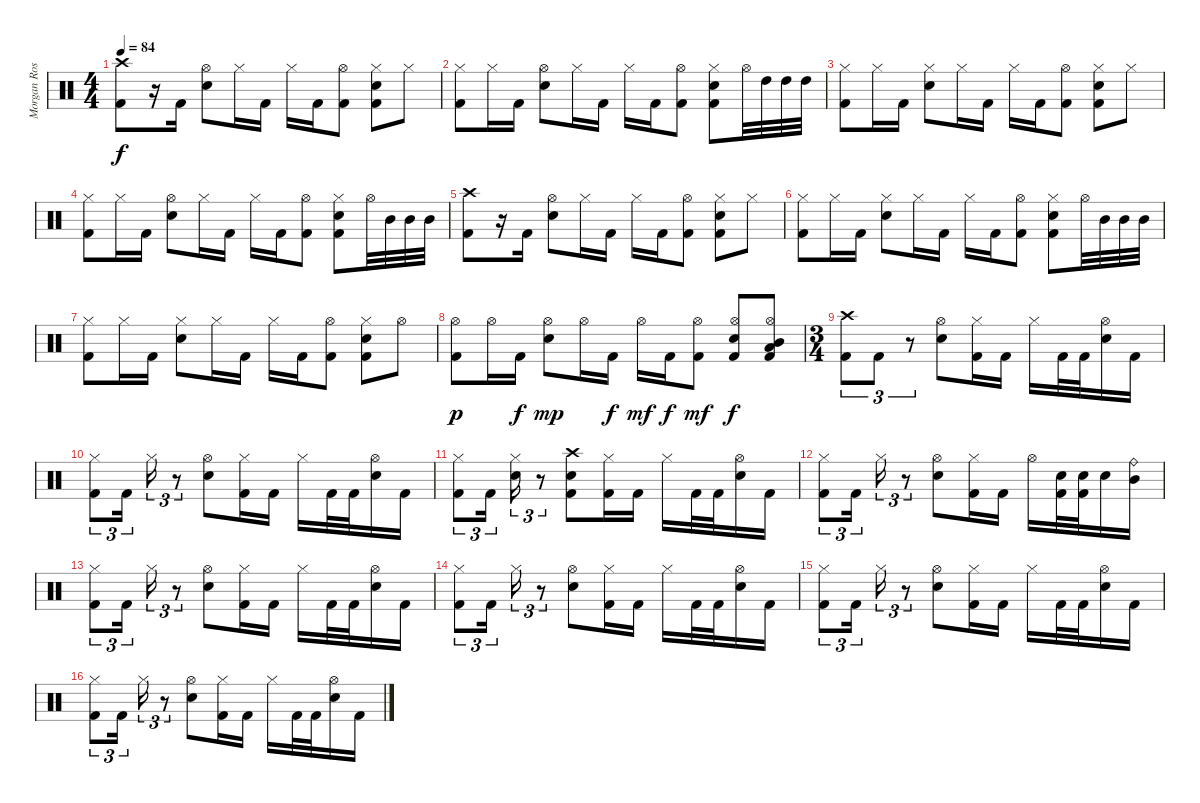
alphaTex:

\track ("Morgan Rose - Drums" "Morgan Ros") {instrument percussion}
\staff {score}
\articulation defaults
\ts (4 4)
\tempo 84
\clef neutral
\ks c
("Crash high (hit)" "Kick (hit) 2").8{dy f} r.16 "Kick (hit) 2".16 ("Hi-Hat (open)" "Electric Snare (hit)").8 "Hi-Hat (closed)".16 "Kick (hit) 2".16 "Hi-Hat (closed)".16 "Kick (hit) 2".16 ("Hi-Hat (open)" "Kick (hit) 2").8 ("Hi-Hat (closed)" "Electric Snare (hit)" "Kick (hit) 2").8 "Hi-Hat (closed)".8 |
("Hi-Hat (closed)" "Kick (hit) 2").8 "Hi-Hat (closed)".16 "Kick (hit) 2".16 ("Hi-Hat (open)" "Electric Snare (hit)").8 "Hi-Hat (closed)".16 "Kick (hit) 2".16 "Hi-Hat (closed)".16 "Kick (hit) 2".16 ("Hi-Hat (open)" "Kick (hit) 2").8 ("Hi-Hat (closed)" "Electric Snare (hit)" "Kick (hit) 2").8 "Hi-Hat (open)".32 "High Tom (hit)".32 "High Tom (hit)".32 "High Tom (hit)".32 |
("Hi-Hat (closed)" "Kick (hit) 2").8 "Hi-Hat (closed)".16 "Kick (hit) 2".16 ("Hi-Hat (closed)" "Electric Snare (hit)").8 "Hi-Hat (closed)".16 "Kick (hit) 2".16 "Hi-Hat (closed)".16 "Kick (hit) 2".16 ("Hi-Hat (open)" "Kick (hit) 2").8 ("Hi-Hat (closed)" "Electric Snare (hit)" "Kick (hit) 2").8 "Hi-Hat (closed)".8 |
("Hi-Hat (closed)" "Kick (hit) 2").8 "Hi-Hat (closed)".16 "Kick (hit) 2".16 ("Hi-Hat (open)" "Electric Snare (hit)").8 "Hi-Hat (closed)".16 "Kick (hit) 2".16 "Hi-Hat (closed)".16 "Kick (hit) 2".16 ("Hi-Hat (open)" "Kick (hit) 2").8 ("Hi-Hat (closed)" "Electric Snare (hit)" "Kick (hit) 2").8 "Hi-Hat (open)".32 "Mid Tom (hit)".32 "Mid Tom (hit)".32 "Mid Tom (hit)".32 |
("Crash high (hit)" "Kick (hit) 2").8 r.16 "Kick (hit) 2".16 ("Hi-Hat (open)" "Electric Snare (hit)").8 "Hi-Hat (closed)".16 "Kick (hit) 2".16 "Hi-Hat (closed)".16 "Kick (hit) 2".16 ("Hi-Hat (open)" "Kick (hit) 2").8 ("Hi-Hat (closed)" "Electric Snare (hit)" "Kick (hit) 2").8 "Hi-Hat (closed)".8 |
("Hi-Hat (closed)" "Kick (hit) 2").8 "Hi-Hat (closed)".16 "Kick (hit) 2".16 ("Hi-Hat (closed)" "Electric Snare (hit)").8 "Hi-Hat (closed)".16 "Kick (hit) 2".16 "Hi-Hat (closed)".16 "Kick (hit) 2".16 ("Hi-Hat (open)" "Kick (hit) 2").8 ("Hi-Hat (closed)" "Electric Snare (hit)" "Kick (hit) 2").8 "Hi-Hat (open)".32 "Mid Tom (hit)".32 "Mid Tom (hit)".32 "Mid Tom (hit)".32 |
("Hi-Hat (closed)" "Kick (hit) 2").8 "Hi-Hat (closed)".16 "Kick (hit) 2".16 ("Hi-Hat (closed)" "Electric Snare (hit)").8 "Hi-Hat (closed)".16 "Kick (hit) 2".16 "Hi-Hat (closed)".16 "Kick (hit) 2".16 ("Hi-Hat (open)" "Kick (hit) 2").8 ("Hi-Hat (closed)" "Electric Snare (hit)" "Kick (hit) 2").8 "Hi-Hat (open)".8 |
("Hi-Hat (open)" "Kick (hit) 2").8{dy p} "Hi-Hat (open)".16 "Kick (hit) 2".16{dy f} ("Hi-Hat (open)" "Electric Snare (hit)").8{dy mp} "Hi-Hat (open)".16 "Kick (hit) 2".16{dy f} "Hi-Hat (open)".16{dy mf} "Kick (hit) 2".16{dy f} ("Hi-Hat (open)" "Kick (hit) 2").8{dy mf} ("Hi-Hat (open)" "Electric Snare (hit)" "Kick (hit) 2").8{dy f} ("Hi-Hat (open)" "Mid Tom (hit)" "Low Tom (hit)" "Kick (hit) 2").8 |
\ts (3 4)
("Crash high (hit)" "Kick (hit) 2").8{tu (3 2)} "Kick (hit) 2".8{tu (3 2)} r.8{tu (3 2)} ("Hi-Hat (open)" "Electric Snare (hit)").8 ("Hi-Hat (closed)" "Kick (hit) 2").16 "Kick (hit) 2".16 "Hi-Hat (closed)".16 "Kick (hit) 2".32 "Kick (hit) 2".32 ("Hi-Hat (open)" "Electric Snare (hit)").16 "Kick (hit) 2".16 |
("Hi-Hat (closed)" "Kick (hit) 2").8{tu (3 2)} "Kick (hit) 2".16{tu (3 2)} "Hi-Hat (closed)".16{tu (3 2)} r.8{tu (3 2)} ("Hi-Hat (open)" "Electric Snare (hit)").8 ("Hi-Hat (closed)" "Kick (hit) 2").16 "Kick (hit) 2".16 "Hi-Hat (closed)".16 "Kick (hit) 2".32 "Kick (hit) 2".32 ("Hi-Hat (open)" "Electric Snare (hit)").16 "Kick (hit) 2".16 |
("Hi-Hat (closed)" "Kick (hit) 2").8{tu (3 2)} "Kick (hit) 2".16{tu (3 2)} ("Hi-Hat (closed)"{x} "Snare (hit)"{x}).16{tu (3 2)} r.8{tu (3 2)} ("Crash high (hit)" "Electric Snare (hit)" "Kick (hit) 2").8 ("Hi-Hat (closed)" "Kick (hit) 2").16 "Kick (hit) 2".16 "Hi-Hat (closed)".16 "Kick (hit) 2".32 "Kick (hit) 2".32 ("Hi-Hat (open)" "Electric Snare (hit)").16 "Kick (hit) 2".16 |
("Hi-Hat (closed)" "Kick (hit) 2").8{tu (3 2)} "Kick (hit) 2".16{tu (3 2)} "Hi-Hat (closed)".16{tu (3 2)} r.8{tu (3 2)} ("Hi-Hat (open)" "Electric Snare (hit)").8 ("Hi-Hat (closed)" "Kick (hit) 2").16 "Kick (hit) 2".16 "Hi-Hat (open)".16 ("Electric Snare (hit)" "Kick (hit) 2").32 ("Electric Snare (hit)" "Kick (hit) 2").32 "Electric Snare (hit)".16 ("Ride (bell)" "Mid Tom (hit)").16 |
("Hi-Hat (closed)" "Kick (hit) 2").8{tu (3 2)} "Kick (hit) 2".16{tu (3 2)} "Hi-Hat (closed)".16{tu (3 2)} r.8{tu (3 2)} ("Hi-Hat (open)" "Electric Snare (hit)").8 ("Hi-Hat (closed)" "Kick (hit) 2").16 "Kick (hit) 2".16 "Hi-Hat (closed)".16 "Kick (hit) 2".32 "Kick (hit) 2".32 ("Hi-Hat (open)" "Electric Snare (hit)").16 "Kick (hit) 2".16 |
("Hi-Hat (closed)" "Kick (hit) 2").8{tu (3 2)} "Kick (hit) 2".16{tu (3 2)} "Hi-Hat (closed)".16{tu (3 2)} r.8{tu (3 2)} ("Hi-Hat (open)" "Electric Snare (hit)").8 ("Hi-Hat (closed)" "Kick (hit) 2").16 "Kick (hit) 2".16 "Hi-Hat (closed)".16 "Kick (hit) 2".32 "Kick (hit) 2".32 ("Hi-Hat (open)" "Electric Snare (hit)").16 "Kick (hit) 2".16 |
("Hi-Hat (closed)" "Kick (hit) 2").8{tu (3 2)} "Kick (hit) 2".16{tu (3 2)} "Hi-Hat (closed)".16{tu (3 2)} r.8{tu (3 2)} ("Hi-Hat (open)" "Electric Snare (hit)").8 ("Hi-Hat (closed)" "Kick (hit) 2").16 "Kick (hit) 2".16 "Hi-Hat (closed)".16 "Kick (hit) 2".32 "Kick (hit) 2".32 ("Hi-Hat (open)" "Electric Snare (hit)").16 "Kick (hit) 2".16 |
("Hi-Hat (closed)" "Kick (hit) 2").8{tu (3 2)} "Kick (hit) 2".16{tu (3 2)} "Hi-Hat (closed)".16{tu (3 2)} r.8{tu (3 2)} ("Hi-Hat (open)" "Electric Snare (hit)").8 ("Hi-Hat (closed)" "Kick (hit) 2").16 "Kick (hit) 2".16 "Hi-Hat (closed)".16 "Kick (hit) 2".32 "Kick (hit) 2".32 ("Hi-Hat (open)" "Electric Snare (hit)").16 "Kick (hit) 2".16
